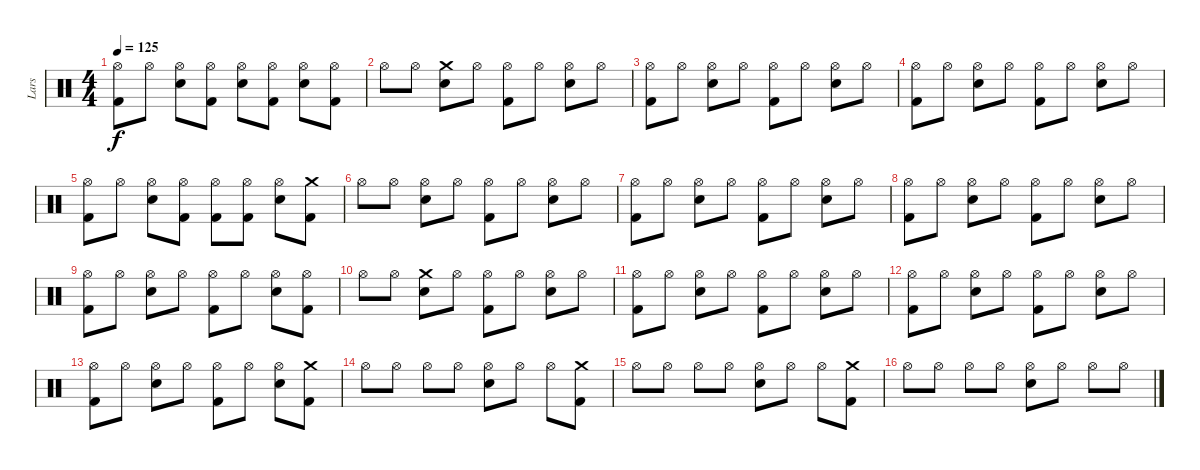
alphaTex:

\track ("Lars" "Lars") {instrument percussion}
\staff {score}
\articulation defaults
\ts (4 4)
\tempo 125
\clef neutral
\ks c
("Kick (hit) 2" "Hi-Hat (open)").8{dy f} "Hi-Hat (open)".8 ("Snare (hit) 2" "Hi-Hat (open)").8 ("Hi-Hat (open)" "Kick (hit) 2").8 ("Snare (hit) 2" "Hi-Hat (open)").8 ("Hi-Hat (open)" "Kick (hit) 2").8 ("Snare (hit) 2" "Hi-Hat (open)").8 ("Kick (hit) 2" "Hi-Hat (open)").8 |
"Hi-Hat (open)".8 "Hi-Hat (open)".8 ("Snare (hit) 2" "Crash medium (hit)").8 "Hi-Hat (open)".8 ("Kick (hit) 2" "Hi-Hat (open)").8 "Hi-Hat (open)".8 ("Snare (hit) 2" "Hi-Hat (open)").8 "Hi-Hat (open)".8 |
("Kick (hit) 2" "Hi-Hat (open)").8 "Hi-Hat (open)".8 ("Snare (hit) 2" "Hi-Hat (open)").8 "Hi-Hat (open)".8 ("Kick (hit) 2" "Hi-Hat (open)").8 "Hi-Hat (open)".8 ("Snare (hit) 2" "Hi-Hat (open)").8 "Hi-Hat (open)".8 |
("Kick (hit) 2" "Hi-Hat (open)").8 "Hi-Hat (open)".8 ("Snare (hit) 2" "Hi-Hat (open)").8 "Hi-Hat (open)".8 ("Kick (hit) 2" "Hi-Hat (open)").8 "Hi-Hat (open)".8 ("Snare (hit) 2" "Hi-Hat (open)").8 "Hi-Hat (open)".8 |
("Kick (hit) 2" "Hi-Hat (open)").8 "Hi-Hat (open)".8 ("Snare (hit) 2" "Hi-Hat (open)").8 ("Hi-Hat (open)" "Kick (hit) 2").8 ("Kick (hit) 2" "Hi-Hat (open)").8 ("Hi-Hat (open)" "Kick (hit) 2").8 ("Snare (hit) 2" "Hi-Hat (open)").8 ("Kick (hit) 2" "Crash medium (hit)").8 |
"Hi-Hat (open)".8 "Hi-Hat (open)".8 ("Snare (hit) 2" "Hi-Hat (open)").8 "Hi-Hat (open)".8 ("Kick (hit) 2" "Hi-Hat (open)").8 "Hi-Hat (open)".8 ("Snare (hit) 2" "Hi-Hat (open)").8 "Hi-Hat (open)".8 |
("Kick (hit) 2" "Hi-Hat (open)").8 "Hi-Hat (open)".8 ("Snare (hit) 2" "Hi-Hat (open)").8 "Hi-Hat (open)".8 ("Kick (hit) 2" "Hi-Hat (open)").8 "Hi-Hat (open)".8 ("Snare (hit) 2" "Hi-Hat (open)").8 "Hi-Hat (open)".8 |
("Kick (hit) 2" "Hi-Hat (open)").8 "Hi-Hat (open)".8 ("Snare (hit) 2" "Hi-Hat (open)").8 "Hi-Hat (open)".8 ("Kick (hit) 2" "Hi-Hat (open)").8 "Hi-Hat (open)".8 ("Snare (hit) 2" "Hi-Hat (open)").8 "Hi-Hat (open)".8 |
("Kick (hit) 2" "Hi-Hat (open)").8 "Hi-Hat (open)".8 ("Snare (hit) 2" "Hi-Hat (open)").8 "Hi-Hat (open)".8 ("Kick (hit) 2" "Hi-Hat (open)").8 "Hi-Hat (open)".8 ("Snare (hit) 2" "Hi-Hat (open)").8 ("Kick (hit) 2" "Hi-Hat (open)").8 |
"Hi-Hat (open)".8 "Hi-Hat (open)".8 ("Snare (hit) 2" "Crash medium (hit)").8 "Hi-Hat (open)".8 ("Kick (hit) 2" "Hi-Hat (open)").8 "Hi-Hat (open)".8 ("Snare (hit) 2" "Hi-Hat (open)").8 "Hi-Hat (open)".8 |
("Kick (hit) 2" "Hi-Hat (open)").8 "Hi-Hat (open)".8 ("Snare (hit) 2" "Hi-Hat (open)").8 "Hi-Hat (open)".8 ("Kick (hit) 2" "Hi-Hat (open)").8 "Hi-Hat (open)".8 ("Snare (hit) 2" "Hi-Hat (open)").8 "Hi-Hat (open)".8 |
("Kick (hit) 2" "Hi-Hat (open)").8 "Hi-Hat (open)".8 ("Snare (hit) 2" "Hi-Hat (open)").8 "Hi-Hat (open)".8 ("Kick (hit) 2" "Hi-Hat (open)").8 "Hi-Hat (open)".8 ("Snare (hit) 2" "Hi-Hat (open)").8 "Hi-Hat (open)".8 |
("Kick (hit) 2" "Hi-Hat (open)").8 "Hi-Hat (open)".8 ("Snare (hit) 2" "Hi-Hat (open)").8 "Hi-Hat (open)".8 ("Kick (hit) 2" "Hi-Hat (open)").8 "Hi-Hat (open)".8 ("Snare (hit) 2" "Hi-Hat (open)").8 ("Kick (hit) 2" "Crash medium (hit)").8 |
"Hi-Hat (open)".8 "Hi-Hat (open)".8 "Hi-Hat (open)".8 "Hi-Hat (open)".8 ("Snare (hit) 2" "Hi-Hat (open)").8 "Hi-Hat (open)".8 "Hi-Hat (open)".8 ("Kick (hit) 2" "Crash medium (hit)").8 |
"Hi-Hat (open)".8 "Hi-Hat (open)".8 "Hi-Hat (open)".8 "Hi-Hat (open)".8 ("Snare (hit) 2" "Hi-Hat (open)").8 "Hi-Hat (open)".8 "Hi-Hat (open)".8 ("Crash medium (hit)" "Kick (hit) 2").8 |
"Hi-Hat (open)".8 "Hi-Hat (open)".8 "Hi-Hat (open)".8 "Hi-Hat (open)".8 ("Snare (hit) 2" "Hi-Hat (open)").8 "Hi-Hat (open)".8 "Hi-Hat (open)".8 "Hi-Hat (open)".8
